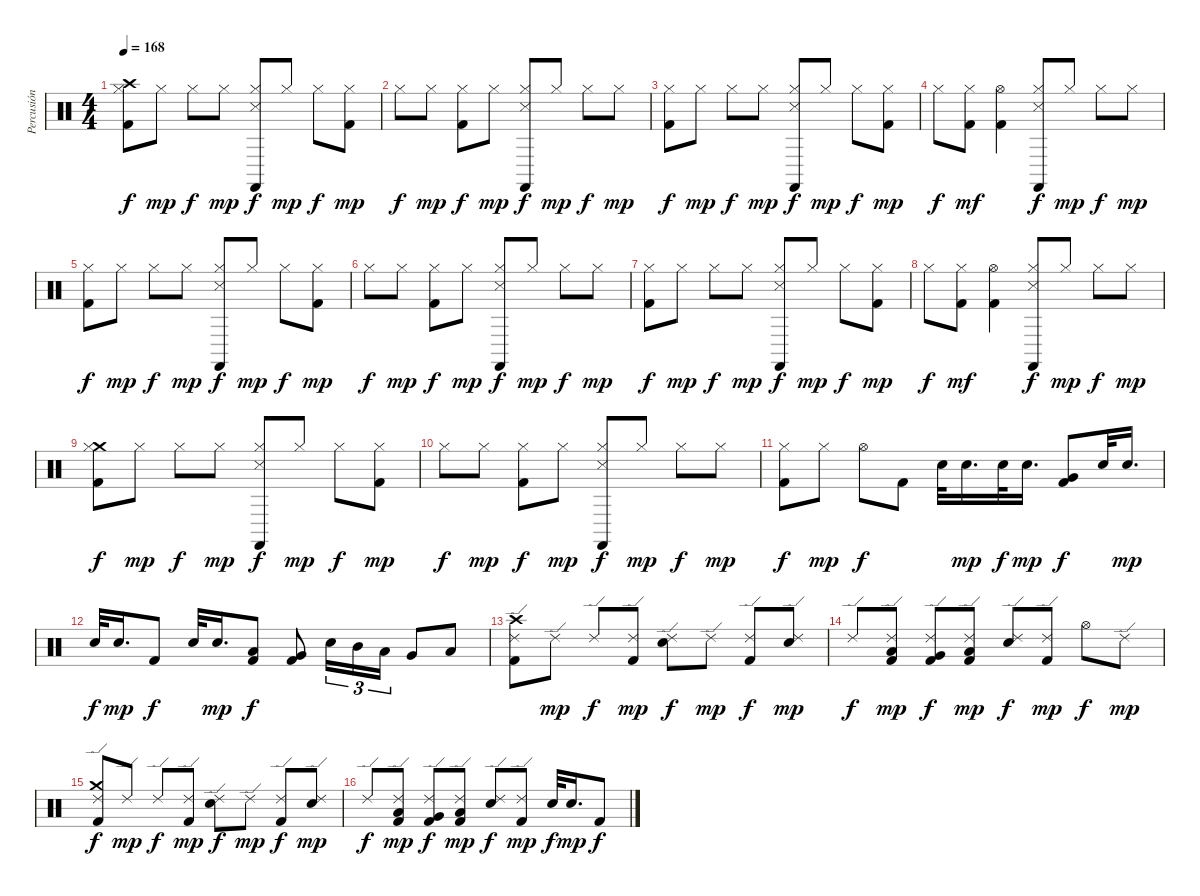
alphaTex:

\track ("Percusión" "Percusión") {instrument percussion}
\staff {score}
\articulation defaults
\ts (4 4)
\tempo 168
\clef neutral
\ks c
("Crash high (hit)" "Hi-Hat (closed)" "Kick (hit) 2").8{dy f} "Hi-Hat (closed)".8{dy mp} "Hi-Hat (closed)".8{dy f} "Hi-Hat (closed)".8{dy mp} ("Hi-Hat (closed)" "Snare (side stick) 3" "Castanets (hit)").8{dy f} "Hi-Hat (closed)".8{dy mp} "Hi-Hat (closed)".8{dy f} ("Hi-Hat (closed)" "Kick (hit) 2").8{dy mp} |
"Hi-Hat (closed)".8{dy f} "Hi-Hat (closed)".8{dy mp} ("Hi-Hat (closed)" "Kick (hit) 2").8{dy f} "Hi-Hat (closed)".8{dy mp} ("Hi-Hat (closed)" "Snare (side stick) 3" "Castanets (hit)").8{dy f} "Hi-Hat (closed)".8{dy mp} "Hi-Hat (closed)".8{dy f} "Hi-Hat (closed)".8{dy mp} |
("Hi-Hat (closed)" "Kick (hit) 2").8{dy f} "Hi-Hat (closed)".8{dy mp} "Hi-Hat (closed)".8{dy f} "Hi-Hat (closed)".8{dy mp} ("Hi-Hat (closed)" "Snare (side stick) 3" "Castanets (hit)").8{dy f} "Hi-Hat (closed)".8{dy mp} "Hi-Hat (closed)".8{dy f} ("Hi-Hat (closed)" "Kick (hit) 2").8{dy mp} |
"Hi-Hat (closed)".8{dy f} ("Hi-Hat (closed)" "Kick (hit) 2").8{dy mf} ("Hi-Hat (open)" "Kick (hit) 2").4 ("Hi-Hat (closed)" "Snare (side stick) 3" "Castanets (hit)").8{dy f} "Hi-Hat (closed)".8{dy mp} "Hi-Hat (closed)".8{dy f} "Hi-Hat (closed)".8{dy mp} |
("Hi-Hat (closed)" "Kick (hit) 2").8{dy f} "Hi-Hat (closed)".8{dy mp} "Hi-Hat (closed)".8{dy f} "Hi-Hat (closed)".8{dy mp} ("Hi-Hat (closed)" "Snare (side stick) 3" "Castanets (hit)").8{dy f} "Hi-Hat (closed)".8{dy mp} "Hi-Hat (closed)".8{dy f} ("Hi-Hat (closed)" "Kick (hit) 2").8{dy mp} |
"Hi-Hat (closed)".8{dy f} "Hi-Hat (closed)".8{dy mp} ("Hi-Hat (closed)" "Kick (hit) 2").8{dy f} "Hi-Hat (closed)".8{dy mp} ("Hi-Hat (closed)" "Snare (side stick) 3" "Castanets (hit)").8{dy f} "Hi-Hat (closed)".8{dy mp} "Hi-Hat (closed)".8{dy f} "Hi-Hat (closed)".8{dy mp} |
("Hi-Hat (closed)" "Kick (hit) 2").8{dy f} "Hi-Hat (closed)".8{dy mp} "Hi-Hat (closed)".8{dy f} "Hi-Hat (closed)".8{dy mp} ("Hi-Hat (closed)" "Snare (side stick) 3" "Castanets (hit)").8{dy f} "Hi-Hat (closed)".8{dy mp} "Hi-Hat (closed)".8{dy f} ("Hi-Hat (closed)" "Kick (hit) 2").8{dy mp} |
"Hi-Hat (closed)".8{dy f} ("Hi-Hat (closed)" "Kick (hit) 2").8{dy mf} ("Hi-Hat (open)" "Kick (hit) 2").4 ("Hi-Hat (closed)" "Snare (side stick) 3" "Castanets (hit)").8{dy f} "Hi-Hat (closed)".8{dy mp} "Hi-Hat (closed)".8{dy f} "Hi-Hat (closed)".8{dy mp} |
("Crash medium (hit)" "Hi-Hat (closed)" "Kick (hit) 2").8{dy f} "Hi-Hat (closed)".8{dy mp} "Hi-Hat (closed)".8{dy f} "Hi-Hat (closed)".8{dy mp} ("Hi-Hat (closed)" "Snare (side stick) 3" "Castanets (hit)").8{dy f} "Hi-Hat (closed)".8{dy mp} "Hi-Hat (closed)".8{dy f} ("Hi-Hat (closed)" "Kick (hit) 2").8{dy mp} |
"Hi-Hat (closed)".8{dy f} "Hi-Hat (closed)".8{dy mp} ("Hi-Hat (closed)" "Kick (hit) 2").8{dy f} "Hi-Hat (closed)".8{dy mp} ("Hi-Hat (closed)" "Snare (side stick) 3" "Castanets (hit)").8{dy f} "Hi-Hat (closed)".8{dy mp} "Hi-Hat (closed)".8{dy f} "Hi-Hat (closed)".8{dy mp} |
("Hi-Hat (closed)" "Kick (hit) 2").8{dy f} "Hi-Hat (closed)".8{dy mp} "Hi-Hat (open)".8{dy f} "Kick (hit) 2".8 "Electric Snare (hit)".32 "Electric Snare (hit)".16{d dy mp} "Electric Snare (hit)".32{dy f} "Electric Snare (hit)".16{d dy mp} ("Very Low Tom (hit)" "Kick (hit) 2").8{dy f} "Electric Snare (hit)".32 "Electric Snare (hit)".16{d dy mp} |
"Electric Snare (hit)".32{dy f} "Electric Snare (hit)".16{d dy mp} "Kick (hit) 2".8{dy f} "Electric Snare (hit)".32 "Electric Snare (hit)".16{d dy mp} ("Low Tom (hit)" "Kick (hit) 2").8{dy f} ("Very Low Tom (hit)" "Kick (hit) 2").8 "Electric Snare (hit)".16{tu (3 2)} "Mid Tom (hit)".16{tu (3 2)} "Low Tom (hit)".16{tu (3 2)} "Very Low Tom (hit)".8 "Low Floor Tom (hit)".8 |
("Crash high (hit)" "Ride (edge) 2" "Kick (hit) 2").8 "Ride (edge) 2".8{dy mp} "Ride (edge) 2".8{dy f} ("Ride (edge) 2" "Kick (hit) 2").8{dy mp} ("Ride (edge) 2" "Electric Snare (hit)").8{dy f} "Ride (edge) 2".8{dy mp} ("Ride (edge) 2" "Kick (hit) 2").8{dy f} ("Ride (edge) 2" "Electric Snare (hit)").8{dy mp} |
"Ride (edge) 2".8{dy f} ("Ride (edge) 2" "Low Tom (hit)" "Kick (hit) 2").8{dy mp} ("Ride (edge) 2" "Very Low Tom (hit)" "Kick (hit) 2").8{dy f} ("Ride (edge) 2" "Low Floor Tom (hit)" "Kick (hit) 2").8{dy mp} ("Ride (edge) 2" "Electric Snare (hit)").8{dy f} ("Ride (edge) 2" "Kick (hit) 2").8{dy mp} "Hi-Hat (open)".8{dy f} "Ride (edge) 2".8{dy mp} |
("Crash medium (hit)" "Ride (edge) 2" "Kick (hit) 2").8{dy f} "Ride (edge) 2".8{dy mp} "Ride (edge) 2".8{dy f} ("Ride (edge) 2" "Kick (hit) 2").8{dy mp} ("Ride (edge) 2" "Electric Snare (hit)").8{dy f} "Ride (edge) 2".8{dy mp} ("Ride (edge) 2" "Kick (hit) 2").8{dy f} ("Ride (edge) 2" "Electric Snare (hit)").8{dy mp} |
"Ride (edge) 2".8{dy f} ("Ride (edge) 2" "Low Tom (hit)" "Kick (hit) 2").8{dy mp} ("Ride (edge) 2" "Very Low Tom (hit)" "Kick (hit) 2").8{dy f} ("Ride (edge) 2" "Low Floor Tom (hit)" "Kick (hit) 2").8{dy mp} ("Ride (edge) 2" "Electric Snare (hit)").8{dy f} ("Ride (edge) 2" "Kick (hit) 2").8{dy mp} "Electric Snare (hit)".32{dy f} "Electric Snare (hit)".16{d dy mp} "Kick (hit) 2".8{dy f}
